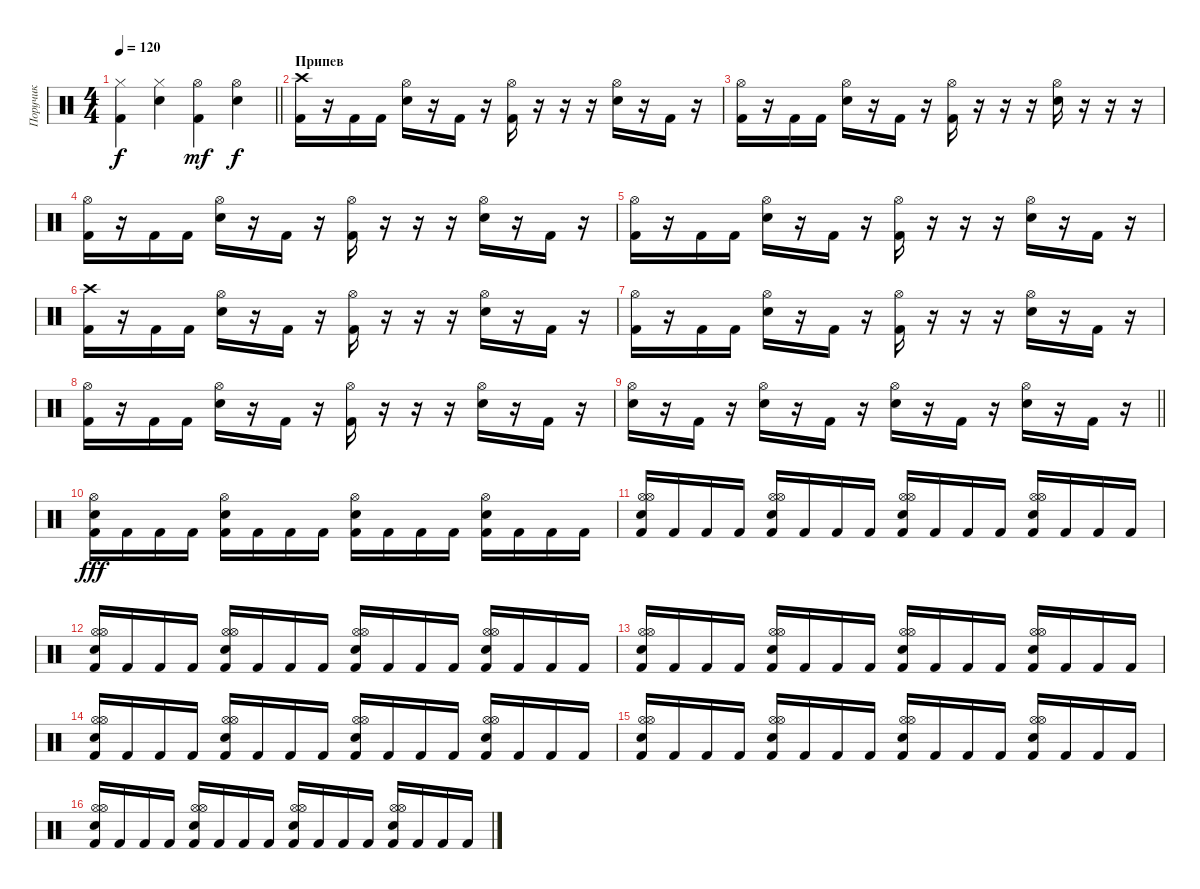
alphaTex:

\track ("Поручик" "Поручик") {instrument percussion}
\staff {score}
\articulation defaults
\ts (4 4)
\tempo 120
\clef neutral
\barLineRight lightlight
\ks c
("Hi-Hat (closed)" "Kick (hit) 2").4{dy f} ("Hi-Hat (closed)" "Snare (hit) 2").4 ("Hi-Hat (open)" "Kick (hit) 2").4{dy mf} ("Hi-Hat (open)" "Snare (hit) 2").4{dy f} |
\section ("" "Припев")
("Crash high (hit)" "Kick (hit) 2").16 r.16 "Kick (hit) 2".16 "Kick (hit) 2".16 ("Hi-Hat (open)" "Snare (hit) 2").16 r.16 "Kick (hit) 2".16 r.16 ("Hi-Hat (open)" "Kick (hit) 2").16 r.16 r.16 r.16 ("Hi-Hat (open)" "Snare (hit) 2").16 r.16 "Kick (hit) 2".16 r.16 |
("Hi-Hat (open)" "Kick (hit) 2").16 r.16 "Kick (hit) 2".16 "Kick (hit) 2".16 ("Hi-Hat (open)" "Snare (hit) 2").16 r.16 "Kick (hit) 2".16 r.16 ("Hi-Hat (open)" "Kick (hit) 2").16 r.16 r.16 r.16 ("Hi-Hat (open)" "Snare (hit) 2").16 r.16 r.16 r.16 |
("Hi-Hat (open)" "Kick (hit) 2").16 r.16 "Kick (hit) 2".16 "Kick (hit) 2".16 ("Hi-Hat (open)" "Snare (hit) 2").16 r.16 "Kick (hit) 2".16 r.16 ("Hi-Hat (open)" "Kick (hit) 2").16 r.16 r.16 r.16 ("Hi-Hat (open)" "Snare (hit) 2").16 r.16 "Kick (hit) 2".16 r.16 |
("Hi-Hat (open)" "Kick (hit) 2").16 r.16 "Kick (hit) 2".16 "Kick (hit) 2".16 ("Hi-Hat (open)" "Snare (hit) 2").16 r.16 "Kick (hit) 2".16 r.16 ("Hi-Hat (open)" "Kick (hit) 2").16 r.16 r.16 r.16 ("Hi-Hat (open)" "Snare (hit) 2").16 r.16 "Kick (hit) 2".16 r.16 |
("Crash high (hit)" "Kick (hit) 2").16 r.16 "Kick (hit) 2".16 "Kick (hit) 2".16 ("Hi-Hat (open)" "Snare (hit) 2").16 r.16 "Kick (hit) 2".16 r.16 ("Hi-Hat (open)" "Kick (hit) 2").16 r.16 r.16 r.16 ("Hi-Hat (open)" "Snare (hit) 2").16 r.16 "Kick (hit) 2".16 r.16 |
("Hi-Hat (open)" "Kick (hit) 2").16 r.16 "Kick (hit) 2".16 "Kick (hit) 2".16 ("Hi-Hat (open)" "Snare (hit) 2").16 r.16 "Kick (hit) 2".16 r.16 ("Hi-Hat (open)" "Kick (hit) 2").16 r.16 r.16 r.16 ("Hi-Hat (open)" "Snare (hit) 2").16 r.16 "Kick (hit) 2".16 r.16 |
("Hi-Hat (open)" "Kick (hit) 2").16 r.16 "Kick (hit) 2".16 "Kick (hit) 2".16 ("Hi-Hat (open)" "Snare (hit) 2").16 r.16 "Kick (hit) 2".16 r.16 ("Hi-Hat (open)" "Kick (hit) 2").16 r.16 r.16 r.16 ("Hi-Hat (open)" "Snare (hit) 2").16 r.16 "Kick (hit) 2".16 r.16 |
\barLineRight lightlight
("Hi-Hat (open)" "Snare (hit) 2").16 r.16 "Kick (hit) 2".16 r.16 ("Hi-Hat (open)" "Snare (hit) 2").16 r.16 "Kick (hit) 2".16 r.16 ("Hi-Hat (open)" "Snare (hit) 2").16 r.16 "Kick (hit) 2".16 r.16 ("Hi-Hat (open)" "Snare (hit) 2").16 r.16 "Kick (hit) 2".16 r.16 |
("Hi-Hat (open)" "Snare (hit) 2" "Kick (hit) 2").16{dy fff} "Kick (hit) 2".16 "Kick (hit) 2".16 "Kick (hit) 2".16 ("Hi-Hat (open)" "Snare (hit) 2" "Kick (hit) 2").16 "Kick (hit) 2".16 "Kick (hit) 2".16 "Kick (hit) 2".16 ("Hi-Hat (open)" "Snare (hit) 2" "Kick (hit) 2").16 "Kick (hit) 2".16 "Kick (hit) 2".16 "Kick (hit) 2".16 ("Hi-Hat (open)" "Snare (hit) 2" "Kick (hit) 2").16 "Kick (hit) 2".16 "Kick (hit) 2".16 "Kick (hit) 2".16 |
("Hi-Hat (open)" "Hi-Hat (open)" "Electric Snare (hit)" "Kick (hit) 2").16 "Kick (hit) 2".16 "Kick (hit) 2".16 "Kick (hit) 2".16 ("Hi-Hat (open)" "Hi-Hat (open)" "Electric Snare (hit)" "Kick (hit) 2").16 "Kick (hit) 2".16 "Kick (hit) 2".16 "Kick (hit) 2".16 ("Hi-Hat (open)" "Hi-Hat (open)" "Electric Snare (hit)" "Kick (hit) 2").16 "Kick (hit) 2".16 "Kick (hit) 2".16 "Kick (hit) 2".16 ("Hi-Hat (open)" "Hi-Hat (open)" "Electric Snare (hit)" "Kick (hit) 2").16 "Kick (hit) 2".16 "Kick (hit) 2".16 "Kick (hit) 2".16 |
("Hi-Hat (open)" "Hi-Hat (open)" "Electric Snare (hit)" "Kick (hit) 2").16 "Kick (hit) 2".16 "Kick (hit) 2".16 "Kick (hit) 2".16 ("Hi-Hat (open)" "Hi-Hat (open)" "Electric Snare (hit)" "Kick (hit) 2").16 "Kick (hit) 2".16 "Kick (hit) 2".16 "Kick (hit) 2".16 ("Hi-Hat (open)" "Hi-Hat (open)" "Electric Snare (hit)" "Kick (hit) 2").16 "Kick (hit) 2".16 "Kick (hit) 2".16 "Kick (hit) 2".16 ("Hi-Hat (open)" "Hi-Hat (open)" "Electric Snare (hit)" "Kick (hit) 2").16 "Kick (hit) 2".16 "Kick (hit) 2".16 "Kick (hit) 2".16 |
("Hi-Hat (open)" "Hi-Hat (open)" "Electric Snare (hit)" "Kick (hit) 2").16 "Kick (hit) 2".16 "Kick (hit) 2".16 "Kick (hit) 2".16 ("Hi-Hat (open)" "Hi-Hat (open)" "Electric Snare (hit)" "Kick (hit) 2").16 "Kick (hit) 2".16 "Kick (hit) 2".16 "Kick (hit) 2".16 ("Hi-Hat (open)" "Hi-Hat (open)" "Electric Snare (hit)" "Kick (hit) 2").16 "Kick (hit) 2".16 "Kick (hit) 2".16 "Kick (hit) 2".16 ("Hi-Hat (open)" "Hi-Hat (open)" "Electric Snare (hit)" "Kick (hit) 2").16 "Kick (hit) 2".16 "Kick (hit) 2".16 "Kick (hit) 2".16 |
("Hi-Hat (open)" "Hi-Hat (open)" "Electric Snare (hit)" "Kick (hit) 2").16 "Kick (hit) 2".16 "Kick (hit) 2".16 "Kick (hit) 2".16 ("Hi-Hat (open)" "Hi-Hat (open)" "Electric Snare (hit)" "Kick (hit) 2").16 "Kick (hit) 2".16 "Kick (hit) 2".16 "Kick (hit) 2".16 ("Hi-Hat (open)" "Hi-Hat (open)" "Electric Snare (hit)" "Kick (hit) 2").16 "Kick (hit) 2".16 "Kick (hit) 2".16 "Kick (hit) 2".16 ("Hi-Hat (open)" "Hi-Hat (open)" "Electric Snare (hit)" "Kick (hit) 2").16 "Kick (hit) 2".16 "Kick (hit) 2".16 "Kick (hit) 2".16 |
("Hi-Hat (open)" "Hi-Hat (open)" "Electric Snare (hit)" "Kick (hit) 2").16 "Kick (hit) 2".16 "Kick (hit) 2".16 "Kick (hit) 2".16 ("Hi-Hat (open)" "Hi-Hat (open)" "Electric Snare (hit)" "Kick (hit) 2").16 "Kick (hit) 2".16 "Kick (hit) 2".16 "Kick (hit) 2".16 ("Hi-Hat (open)" "Hi-Hat (open)" "Electric Snare (hit)" "Kick (hit) 2").16 "Kick (hit) 2".16 "Kick (hit) 2".16 "Kick (hit) 2".16 ("Hi-Hat (open)" "Hi-Hat (open)" "Electric Snare (hit)" "Kick (hit) 2").16 "Kick (hit) 2".16 "Kick (hit) 2".16 "Kick (hit) 2".16 |
("Hi-Hat (open)" "Hi-Hat (open)" "Electric Snare (hit)" "Kick (hit) 2").16 "Kick (hit) 2".16 "Kick (hit) 2".16 "Kick (hit) 2".16 ("Hi-Hat (open)" "Hi-Hat (open)" "Electric Snare (hit)" "Kick (hit) 2").16 "Kick (hit) 2".16 "Kick (hit) 2".16 "Kick (hit) 2".16 ("Hi-Hat (open)" "Hi-Hat (open)" "Electric Snare (hit)" "Kick (hit) 2").16 "Kick (hit) 2".16 "Kick (hit) 2".16 "Kick (hit) 2".16 ("Hi-Hat (open)" "Hi-Hat (open)" "Electric Snare (hit)" "Kick (hit) 2").16 "Kick (hit) 2".16 "Kick (hit) 2".16 "Kick (hit) 2".16
